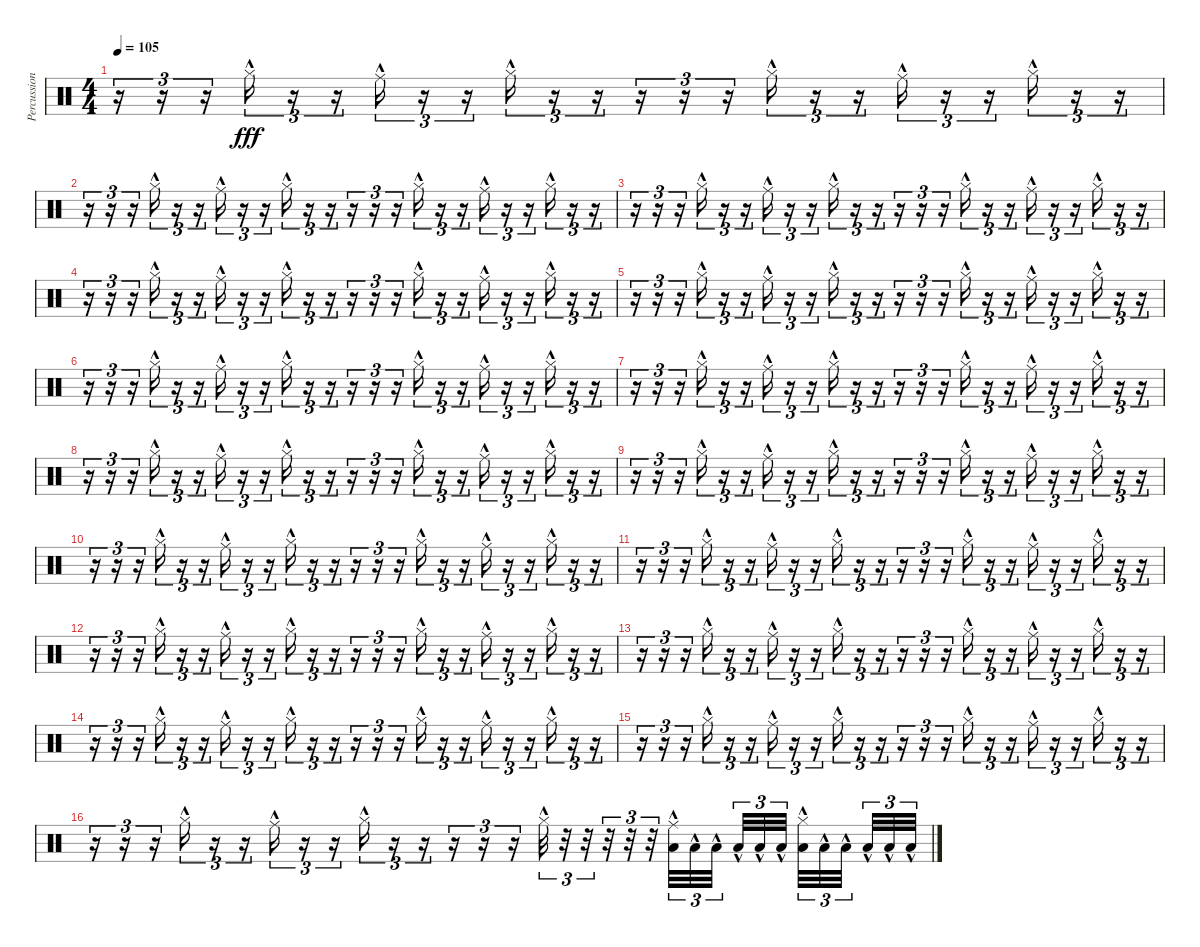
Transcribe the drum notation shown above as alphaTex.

\track ("Percussion" "Percussion") {instrument percussion}
\staff {score}
\articulation defaults
\ts (4 4)
\tempo 105
\clef neutral
\ks c
r.16{tu (3 2) dy fff} r.16{tu (3 2)} r.16{tu (3 2)} "Hi-Hat (closed)"{hac}.16{tu (3 2)} r.16{tu (3 2)} r.16{tu (3 2)} "Ride (middle)"{hac}.16{tu (3 2)} r.16{tu (3 2)} r.16{tu (3 2)} "Hi-Hat (closed)"{hac}.16{tu (3 2)} r.16{tu (3 2)} r.16{tu (3 2)} r.16{tu (3 2)} r.16{tu (3 2)} r.16{tu (3 2)} "Hi-Hat (closed)"{hac}.16{tu (3 2)} r.16{tu (3 2)} r.16{tu (3 2)} "Ride (middle)"{hac}.16{tu (3 2)} r.16{tu (3 2)} r.16{tu (3 2)} "Hi-Hat (closed)"{hac}.16{tu (3 2)} r.16{tu (3 2)} r.16{tu (3 2)} |
r.16{tu (3 2)} r.16{tu (3 2)} r.16{tu (3 2)} "Hi-Hat (closed)"{hac}.16{tu (3 2)} r.16{tu (3 2)} r.16{tu (3 2)} "Ride (middle)"{hac}.16{tu (3 2)} r.16{tu (3 2)} r.16{tu (3 2)} "Hi-Hat (closed)"{hac}.16{tu (3 2)} r.16{tu (3 2)} r.16{tu (3 2)} r.16{tu (3 2)} r.16{tu (3 2)} r.16{tu (3 2)} "Hi-Hat (closed)"{hac}.16{tu (3 2)} r.16{tu (3 2)} r.16{tu (3 2)} "Ride (middle)"{hac}.16{tu (3 2)} r.16{tu (3 2)} r.16{tu (3 2)} "Hi-Hat (closed)"{hac}.16{tu (3 2)} r.16{tu (3 2)} r.16{tu (3 2)} |
r.16{tu (3 2)} r.16{tu (3 2)} r.16{tu (3 2)} "Hi-Hat (closed)"{hac}.16{tu (3 2)} r.16{tu (3 2)} r.16{tu (3 2)} "Ride (middle)"{hac}.16{tu (3 2)} r.16{tu (3 2)} r.16{tu (3 2)} "Hi-Hat (closed)"{hac}.16{tu (3 2)} r.16{tu (3 2)} r.16{tu (3 2)} r.16{tu (3 2)} r.16{tu (3 2)} r.16{tu (3 2)} "Hi-Hat (closed)"{hac}.16{tu (3 2)} r.16{tu (3 2)} r.16{tu (3 2)} "Ride (middle)"{hac}.16{tu (3 2)} r.16{tu (3 2)} r.16{tu (3 2)} "Hi-Hat (closed)"{hac}.16{tu (3 2)} r.16{tu (3 2)} r.16{tu (3 2)} |
r.16{tu (3 2)} r.16{tu (3 2)} r.16{tu (3 2)} "Hi-Hat (closed)"{hac}.16{tu (3 2)} r.16{tu (3 2)} r.16{tu (3 2)} "Ride (middle)"{hac}.16{tu (3 2)} r.16{tu (3 2)} r.16{tu (3 2)} "Hi-Hat (closed)"{hac}.16{tu (3 2)} r.16{tu (3 2)} r.16{tu (3 2)} r.16{tu (3 2)} r.16{tu (3 2)} r.16{tu (3 2)} "Hi-Hat (closed)"{hac}.16{tu (3 2)} r.16{tu (3 2)} r.16{tu (3 2)} "Ride (middle)"{hac}.16{tu (3 2)} r.16{tu (3 2)} r.16{tu (3 2)} "Hi-Hat (closed)"{hac}.16{tu (3 2)} r.16{tu (3 2)} r.16{tu (3 2)} |
r.16{tu (3 2)} r.16{tu (3 2)} r.16{tu (3 2)} "Hi-Hat (closed)"{hac}.16{tu (3 2)} r.16{tu (3 2)} r.16{tu (3 2)} "Ride (middle)"{hac}.16{tu (3 2)} r.16{tu (3 2)} r.16{tu (3 2)} "Hi-Hat (closed)"{hac}.16{tu (3 2)} r.16{tu (3 2)} r.16{tu (3 2)} r.16{tu (3 2)} r.16{tu (3 2)} r.16{tu (3 2)} "Hi-Hat (closed)"{hac}.16{tu (3 2)} r.16{tu (3 2)} r.16{tu (3 2)} "Ride (middle)"{hac}.16{tu (3 2)} r.16{tu (3 2)} r.16{tu (3 2)} "Hi-Hat (closed)"{hac}.16{tu (3 2)} r.16{tu (3 2)} r.16{tu (3 2)} |
r.16{tu (3 2)} r.16{tu (3 2)} r.16{tu (3 2)} "Hi-Hat (closed)"{hac}.16{tu (3 2)} r.16{tu (3 2)} r.16{tu (3 2)} "Ride (middle)"{hac}.16{tu (3 2)} r.16{tu (3 2)} r.16{tu (3 2)} "Hi-Hat (closed)"{hac}.16{tu (3 2)} r.16{tu (3 2)} r.16{tu (3 2)} r.16{tu (3 2)} r.16{tu (3 2)} r.16{tu (3 2)} "Hi-Hat (closed)"{hac}.16{tu (3 2)} r.16{tu (3 2)} r.16{tu (3 2)} "Ride (middle)"{hac}.16{tu (3 2)} r.16{tu (3 2)} r.16{tu (3 2)} "Hi-Hat (closed)"{hac}.16{tu (3 2)} r.16{tu (3 2)} r.16{tu (3 2)} |
r.16{tu (3 2)} r.16{tu (3 2)} r.16{tu (3 2)} "Hi-Hat (closed)"{hac}.16{tu (3 2)} r.16{tu (3 2)} r.16{tu (3 2)} "Ride (middle)"{hac}.16{tu (3 2)} r.16{tu (3 2)} r.16{tu (3 2)} "Hi-Hat (closed)"{hac}.16{tu (3 2)} r.16{tu (3 2)} r.16{tu (3 2)} r.16{tu (3 2)} r.16{tu (3 2)} r.16{tu (3 2)} "Hi-Hat (closed)"{hac}.16{tu (3 2)} r.16{tu (3 2)} r.16{tu (3 2)} "Ride (middle)"{hac}.16{tu (3 2)} r.16{tu (3 2)} r.16{tu (3 2)} "Hi-Hat (closed)"{hac}.16{tu (3 2)} r.16{tu (3 2)} r.16{tu (3 2)} |
r.16{tu (3 2)} r.16{tu (3 2)} r.16{tu (3 2)} "Hi-Hat (closed)"{hac}.16{tu (3 2)} r.16{tu (3 2)} r.16{tu (3 2)} "Ride (middle)"{hac}.16{tu (3 2)} r.16{tu (3 2)} r.16{tu (3 2)} "Hi-Hat (closed)"{hac}.16{tu (3 2)} r.16{tu (3 2)} r.16{tu (3 2)} r.16{tu (3 2)} r.16{tu (3 2)} r.16{tu (3 2)} "Hi-Hat (closed)"{hac}.16{tu (3 2)} r.16{tu (3 2)} r.16{tu (3 2)} "Ride (middle)"{hac}.16{tu (3 2)} r.16{tu (3 2)} r.16{tu (3 2)} "Hi-Hat (closed)"{hac}.16{tu (3 2)} r.16{tu (3 2)} r.16{tu (3 2)} |
r.16{tu (3 2)} r.16{tu (3 2)} r.16{tu (3 2)} "Hi-Hat (closed)"{hac}.16{tu (3 2)} r.16{tu (3 2)} r.16{tu (3 2)} "Ride (middle)"{hac}.16{tu (3 2)} r.16{tu (3 2)} r.16{tu (3 2)} "Hi-Hat (closed)"{hac}.16{tu (3 2)} r.16{tu (3 2)} r.16{tu (3 2)} r.16{tu (3 2)} r.16{tu (3 2)} r.16{tu (3 2)} "Hi-Hat (closed)"{hac}.16{tu (3 2)} r.16{tu (3 2)} r.16{tu (3 2)} "Ride (middle)"{hac}.16{tu (3 2)} r.16{tu (3 2)} r.16{tu (3 2)} "Hi-Hat (closed)"{hac}.16{tu (3 2)} r.16{tu (3 2)} r.16{tu (3 2)} |
r.16{tu (3 2)} r.16{tu (3 2)} r.16{tu (3 2)} "Hi-Hat (closed)"{hac}.16{tu (3 2)} r.16{tu (3 2)} r.16{tu (3 2)} "Ride (middle)"{hac}.16{tu (3 2)} r.16{tu (3 2)} r.16{tu (3 2)} "Hi-Hat (closed)"{hac}.16{tu (3 2)} r.16{tu (3 2)} r.16{tu (3 2)} r.16{tu (3 2)} r.16{tu (3 2)} r.16{tu (3 2)} "Hi-Hat (closed)"{hac}.16{tu (3 2)} r.16{tu (3 2)} r.16{tu (3 2)} "Ride (middle)"{hac}.16{tu (3 2)} r.16{tu (3 2)} r.16{tu (3 2)} "Hi-Hat (closed)"{hac}.16{tu (3 2)} r.16{tu (3 2)} r.16{tu (3 2)} |
r.16{tu (3 2)} r.16{tu (3 2)} r.16{tu (3 2)} "Hi-Hat (closed)"{hac}.16{tu (3 2)} r.16{tu (3 2)} r.16{tu (3 2)} "Ride (middle)"{hac}.16{tu (3 2)} r.16{tu (3 2)} r.16{tu (3 2)} "Hi-Hat (closed)"{hac}.16{tu (3 2)} r.16{tu (3 2)} r.16{tu (3 2)} r.16{tu (3 2)} r.16{tu (3 2)} r.16{tu (3 2)} "Hi-Hat (closed)"{hac}.16{tu (3 2)} r.16{tu (3 2)} r.16{tu (3 2)} "Ride (middle)"{hac}.16{tu (3 2)} r.16{tu (3 2)} r.16{tu (3 2)} "Hi-Hat (closed)"{hac}.16{tu (3 2)} r.16{tu (3 2)} r.16{tu (3 2)} |
r.16{tu (3 2)} r.16{tu (3 2)} r.16{tu (3 2)} "Hi-Hat (closed)"{hac}.16{tu (3 2)} r.16{tu (3 2)} r.16{tu (3 2)} "Ride (middle)"{hac}.16{tu (3 2)} r.16{tu (3 2)} r.16{tu (3 2)} "Hi-Hat (closed)"{hac}.16{tu (3 2)} r.16{tu (3 2)} r.16{tu (3 2)} r.16{tu (3 2)} r.16{tu (3 2)} r.16{tu (3 2)} "Hi-Hat (closed)"{hac}.16{tu (3 2)} r.16{tu (3 2)} r.16{tu (3 2)} "Ride (middle)"{hac}.16{tu (3 2)} r.16{tu (3 2)} r.16{tu (3 2)} "Hi-Hat (closed)"{hac}.16{tu (3 2)} r.16{tu (3 2)} r.16{tu (3 2)} |
r.16{tu (3 2)} r.16{tu (3 2)} r.16{tu (3 2)} "Hi-Hat (closed)"{hac}.16{tu (3 2)} r.16{tu (3 2)} r.16{tu (3 2)} "Ride (middle)"{hac}.16{tu (3 2)} r.16{tu (3 2)} r.16{tu (3 2)} "Hi-Hat (closed)"{hac}.16{tu (3 2)} r.16{tu (3 2)} r.16{tu (3 2)} r.16{tu (3 2)} r.16{tu (3 2)} r.16{tu (3 2)} "Hi-Hat (closed)"{hac}.16{tu (3 2)} r.16{tu (3 2)} r.16{tu (3 2)} "Ride (middle)"{hac}.16{tu (3 2)} r.16{tu (3 2)} r.16{tu (3 2)} "Hi-Hat (closed)"{hac}.16{tu (3 2)} r.16{tu (3 2)} r.16{tu (3 2)} |
r.16{tu (3 2)} r.16{tu (3 2)} r.16{tu (3 2)} "Hi-Hat (closed)"{hac}.16{tu (3 2)} r.16{tu (3 2)} r.16{tu (3 2)} "Ride (middle)"{hac}.16{tu (3 2)} r.16{tu (3 2)} r.16{tu (3 2)} "Hi-Hat (closed)"{hac}.16{tu (3 2)} r.16{tu (3 2)} r.16{tu (3 2)} r.16{tu (3 2)} r.16{tu (3 2)} r.16{tu (3 2)} "Hi-Hat (closed)"{hac}.16{tu (3 2)} r.16{tu (3 2)} r.16{tu (3 2)} "Ride (middle)"{hac}.16{tu (3 2)} r.16{tu (3 2)} r.16{tu (3 2)} "Hi-Hat (closed)"{hac}.16{tu (3 2)} r.16{tu (3 2)} r.16{tu (3 2)} |
r.16{tu (3 2)} r.16{tu (3 2)} r.16{tu (3 2)} "Hi-Hat (closed)"{hac}.16{tu (3 2)} r.16{tu (3 2)} r.16{tu (3 2)} "Ride (middle)"{hac}.16{tu (3 2)} r.16{tu (3 2)} r.16{tu (3 2)} "Hi-Hat (closed)"{hac}.16{tu (3 2)} r.16{tu (3 2)} r.16{tu (3 2)} r.16{tu (3 2)} r.16{tu (3 2)} r.16{tu (3 2)} "Hi-Hat (closed)"{hac}.16{tu (3 2)} r.16{tu (3 2)} r.16{tu (3 2)} "Ride (middle)"{hac}.16{tu (3 2)} r.16{tu (3 2)} r.16{tu (3 2)} "Hi-Hat (closed)"{hac}.16{tu (3 2)} r.16{tu (3 2)} r.16{tu (3 2)} |
r.16{tu (3 2)} r.16{tu (3 2)} r.16{tu (3 2)} "Hi-Hat (closed)"{hac}.16{tu (3 2)} r.16{tu (3 2)} r.16{tu (3 2)} "Ride (middle)"{hac}.16{tu (3 2)} r.16{tu (3 2)} r.16{tu (3 2)} "Hi-Hat (closed)"{hac}.16{tu (3 2)} r.16{tu (3 2)} r.16{tu (3 2)} r.16{tu (3 2)} r.16{tu (3 2)} r.16{tu (3 2)} "Hi-Hat (closed)"{hac}.32{tu (3 2)} r.32{tu (3 2)} r.32{tu (3 2)} r.32{tu (3 2)} r.32{tu (3 2)} r.32{tu (3 2)} ("Ride (middle)"{hac} "Low Floor Tom (hit)"{hac}).32{tu (3 2) volume 14} "Low Floor Tom (hit)"{hac}.32{tu (3 2) volume 16} "Low Floor Tom (hit)"{hac}.32{tu (3 2) beam splitsecondary} "Low Floor Tom (hit)"{hac}.32{tu (3 2)} "Low Floor Tom (hit)"{hac}.32{tu (3 2)} "Low Floor Tom (hit)"{hac}.32{tu (3 2) beam splitsecondary} ("Hi-Hat (closed)"{hac} "Low Floor Tom (hit)"{hac}).32{tu (3 2)} "Low Floor Tom (hit)"{hac}.32{tu (3 2)} "Low Floor Tom (hit)"{hac}.32{tu (3 2) beam splitsecondary} "Low Floor Tom (hit)"{hac}.32{tu (3 2)} "Low Floor Tom (hit)"{hac}.32{tu (3 2)} "Low Floor Tom (hit)"{hac}.32{tu (3 2)}
